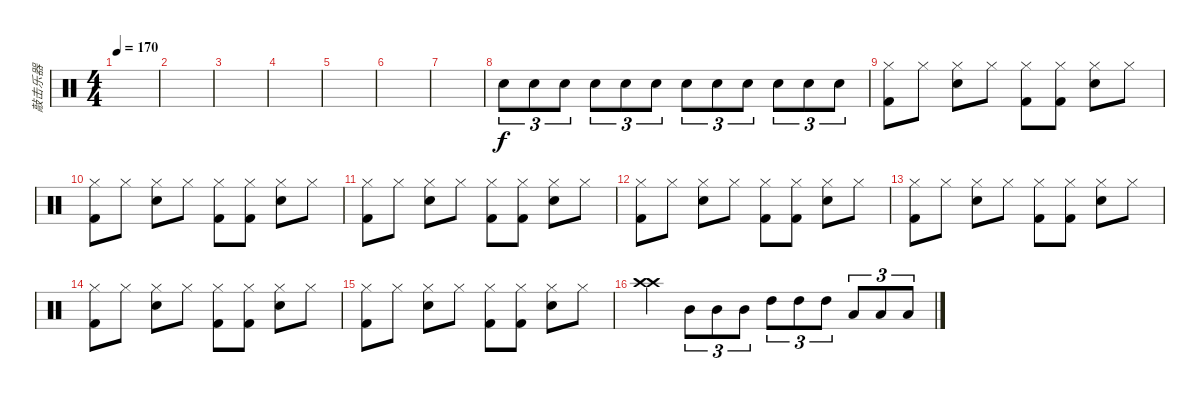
\track ("敲击乐器" "敲击乐器") {instrument percussion}
\staff {score}
\articulation defaults
\ts (4 4)
\tempo 170
\clef neutral
\ks c
|
|
|
|
|
|
|
"Snare (hit) 2".8{tu (3 2)} "Snare (hit) 2".8{tu (3 2)} "Snare (hit) 2".8{tu (3 2)} "Snare (hit) 2".8{tu (3 2)} "Snare (hit) 2".8{tu (3 2)} "Snare (hit) 2".8{tu (3 2)} "Snare (hit) 2".8{tu (3 2)} "Snare (hit) 2".8{tu (3 2)} "Snare (hit) 2".8{tu (3 2)} "Snare (hit) 2".8{tu (3 2)} "Snare (hit) 2".8{tu (3 2)} "Snare (hit) 2".8{tu (3 2)} |
("Hi-Hat (closed)" "Kick (hit) 2").8 "Hi-Hat (closed)".8 ("Hi-Hat (closed)" "Snare (hit) 2").8 "Hi-Hat (closed)".8 ("Hi-Hat (closed)" "Kick (hit) 2").8 ("Hi-Hat (closed)" "Kick (hit) 2").8 ("Hi-Hat (closed)" "Snare (hit) 2").8 "Hi-Hat (closed)".8 |
("Hi-Hat (closed)" "Kick (hit) 2").8 "Hi-Hat (closed)".8 ("Hi-Hat (closed)" "Snare (hit) 2").8 "Hi-Hat (closed)".8 ("Hi-Hat (closed)" "Kick (hit) 2").8 ("Hi-Hat (closed)" "Kick (hit) 2").8 ("Hi-Hat (closed)" "Snare (hit) 2").8 "Hi-Hat (closed)".8 |
("Hi-Hat (closed)" "Kick (hit) 2").8 "Hi-Hat (closed)".8 ("Hi-Hat (closed)" "Snare (hit) 2").8 "Hi-Hat (closed)".8 ("Hi-Hat (closed)" "Kick (hit) 2").8 ("Hi-Hat (closed)" "Kick (hit) 2").8 ("Hi-Hat (closed)" "Snare (hit) 2").8 "Hi-Hat (closed)".8 |
("Hi-Hat (closed)" "Kick (hit) 2").8 "Hi-Hat (closed)".8 ("Hi-Hat (closed)" "Snare (hit) 2").8 "Hi-Hat (closed)".8 ("Hi-Hat (closed)" "Kick (hit) 2").8 ("Hi-Hat (closed)" "Kick (hit) 2").8 ("Hi-Hat (closed)" "Snare (hit) 2").8 "Hi-Hat (closed)".8 |
("Hi-Hat (closed)" "Kick (hit) 2").8 "Hi-Hat (closed)".8 ("Hi-Hat (closed)" "Snare (hit) 2").8 "Hi-Hat (closed)".8 ("Hi-Hat (closed)" "Kick (hit) 2").8 ("Hi-Hat (closed)" "Kick (hit) 2").8 ("Hi-Hat (closed)" "Snare (hit) 2").8 "Hi-Hat (closed)".8 |
("Hi-Hat (closed)" "Kick (hit) 2").8 "Hi-Hat (closed)".8 ("Hi-Hat (closed)" "Snare (hit) 2").8 "Hi-Hat (closed)".8 ("Hi-Hat (closed)" "Kick (hit) 2").8 ("Hi-Hat (closed)" "Kick (hit) 2").8 ("Hi-Hat (closed)" "Snare (hit) 2").8 "Hi-Hat (closed)".8 |
("Hi-Hat (closed)" "Kick (hit) 2").8 "Hi-Hat (closed)".8 ("Hi-Hat (closed)" "Snare (hit) 2").8 "Hi-Hat (closed)".8 ("Hi-Hat (closed)" "Kick (hit) 2").8 ("Hi-Hat (closed)" "Kick (hit) 2").8 ("Hi-Hat (closed)" "Snare (hit) 2").8 "Hi-Hat (closed)".8 |
("Crash high (hit)" "Crash high (hit)").4 "Mid Tom (hit)".8{tu (3 2)} "Mid Tom (hit)".8{tu (3 2)} "Mid Tom (hit)".8{tu (3 2)} "High Tom (hit)".8{tu (3 2)} "High Tom (hit)".8{tu (3 2)} "High Tom (hit)".8{tu (3 2)} "Low Floor Tom (hit)".8{tu (3 2)} "Low Floor Tom (hit)".8{tu (3 2)} "Low Floor Tom (hit)".8{tu (3 2)}
